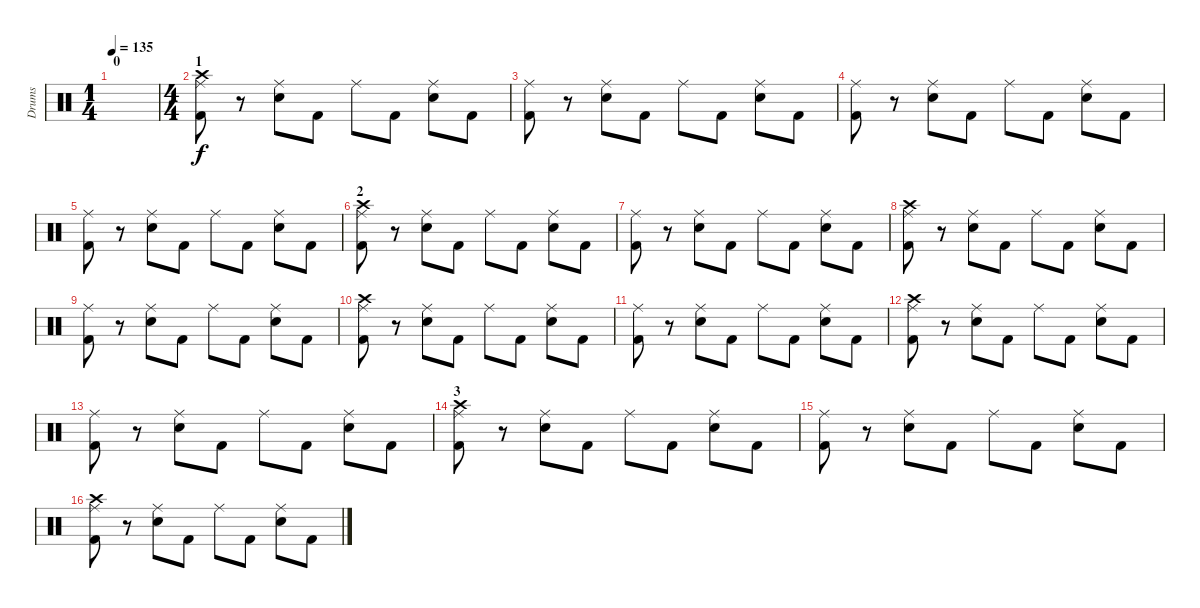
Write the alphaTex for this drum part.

\track ("Drums" "Drums") {instrument percussion}
\staff {score}
\articulation defaults
\ts (1 4)
\section ("" "0")
\tempo 135
\clef neutral
\ks c
|
\ts (4 4)
\section ("" "1")
("Ride (middle)" "Kick (hit) 2" "Crash high (hit)").8 r.8 ("Ride (middle)" "Snare (hit) 2").8 "Kick (hit) 2".8 "Ride (middle)".8 "Kick (hit) 2".8 ("Ride (middle)" "Snare (hit) 2").8 "Kick (hit) 2".8 |
("Ride (middle)" "Kick (hit) 2").8 r.8 ("Ride (middle)" "Snare (hit) 2").8 "Kick (hit) 2".8 "Ride (middle)".8 "Kick (hit) 2".8 ("Ride (middle)" "Snare (hit) 2").8 "Kick (hit) 2".8 |
("Ride (middle)" "Kick (hit) 2").8 r.8 ("Ride (middle)" "Snare (hit) 2").8 "Kick (hit) 2".8 "Ride (middle)".8 "Kick (hit) 2".8 ("Ride (middle)" "Snare (hit) 2").8 "Kick (hit) 2".8 |
("Ride (middle)" "Kick (hit) 2").8 r.8 ("Ride (middle)" "Snare (hit) 2").8 "Kick (hit) 2".8 "Ride (middle)".8 "Kick (hit) 2".8 ("Ride (middle)" "Snare (hit) 2").8 "Kick (hit) 2".8 |
\section ("" "2")
("Ride (middle)" "Kick (hit) 2" "Crash high (hit)").8 r.8 ("Ride (middle)" "Snare (hit) 2").8 "Kick (hit) 2".8 "Ride (middle)".8 "Kick (hit) 2".8 ("Ride (middle)" "Snare (hit) 2").8 "Kick (hit) 2".8 |
("Ride (middle)" "Kick (hit) 2").8 r.8 ("Ride (middle)" "Snare (hit) 2").8 "Kick (hit) 2".8 "Ride (middle)".8 "Kick (hit) 2".8 ("Ride (middle)" "Snare (hit) 2").8 "Kick (hit) 2".8 |
("Ride (middle)" "Kick (hit) 2" "Crash high (hit)").8 r.8 ("Ride (middle)" "Snare (hit) 2").8 "Kick (hit) 2".8 "Ride (middle)".8 "Kick (hit) 2".8 ("Ride (middle)" "Snare (hit) 2").8 "Kick (hit) 2".8 |
("Ride (middle)" "Kick (hit) 2").8 r.8 ("Ride (middle)" "Snare (hit) 2").8 "Kick (hit) 2".8 "Ride (middle)".8 "Kick (hit) 2".8 ("Ride (middle)" "Snare (hit) 2").8 "Kick (hit) 2".8 |
("Ride (middle)" "Kick (hit) 2" "Crash high (hit)").8 r.8 ("Ride (middle)" "Snare (hit) 2").8 "Kick (hit) 2".8 "Ride (middle)".8 "Kick (hit) 2".8 ("Ride (middle)" "Snare (hit) 2").8 "Kick (hit) 2".8 |
("Ride (middle)" "Kick (hit) 2").8 r.8 ("Ride (middle)" "Snare (hit) 2").8 "Kick (hit) 2".8 "Ride (middle)".8 "Kick (hit) 2".8 ("Ride (middle)" "Snare (hit) 2").8 "Kick (hit) 2".8 |
("Ride (middle)" "Kick (hit) 2" "Crash high (hit)").8 r.8 ("Ride (middle)" "Snare (hit) 2").8 "Kick (hit) 2".8 "Ride (middle)".8 "Kick (hit) 2".8 ("Ride (middle)" "Snare (hit) 2").8 "Kick (hit) 2".8 |
("Ride (middle)" "Kick (hit) 2").8 r.8 ("Ride (middle)" "Snare (hit) 2").8 "Kick (hit) 2".8 "Ride (middle)".8 "Kick (hit) 2".8 ("Ride (middle)" "Snare (hit) 2").8 "Kick (hit) 2".8 |
\section ("" "3")
("Ride (middle)" "Kick (hit) 2" "Crash high (hit)").8 r.8 ("Ride (middle)" "Snare (hit) 2").8 "Kick (hit) 2".8 "Ride (middle)".8 "Kick (hit) 2".8 ("Ride (middle)" "Snare (hit) 2").8 "Kick (hit) 2".8 |
("Ride (middle)" "Kick (hit) 2").8 r.8 ("Ride (middle)" "Snare (hit) 2").8 "Kick (hit) 2".8 "Ride (middle)".8 "Kick (hit) 2".8 ("Ride (middle)" "Snare (hit) 2").8 "Kick (hit) 2".8 |
("Ride (middle)" "Kick (hit) 2" "Crash high (hit)").8 r.8 ("Ride (middle)" "Snare (hit) 2").8 "Kick (hit) 2".8 "Ride (middle)".8 "Kick (hit) 2".8 ("Ride (middle)" "Snare (hit) 2").8 "Kick (hit) 2".8
